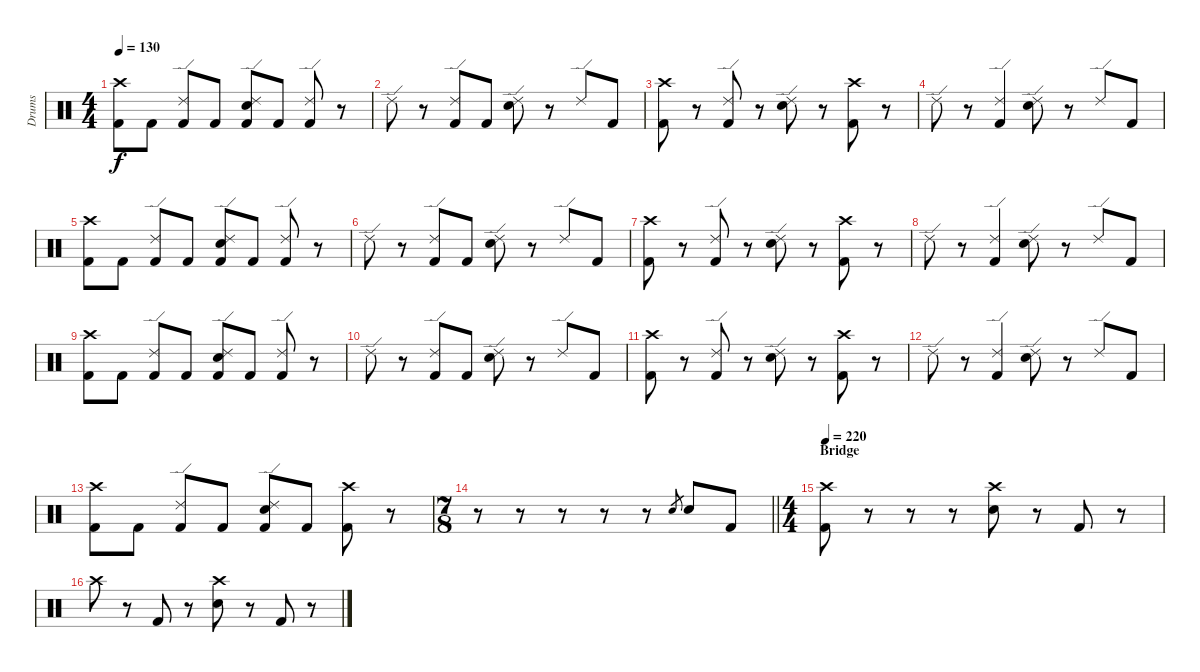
\track ("Drums" "Drums") {instrument percussion}
\staff {score}
\articulation defaults
\ts (4 4)
\tempo 130
\clef neutral
\ks c
("Crash high (hit)" "Kick (hit) 2").8{dy f} "Kick (hit) 2".8 ("Ride (edge) 2" "Kick (hit) 2").8 "Kick (hit) 2".8 ("Ride (edge) 2" "Electric Snare (hit)" "Kick (hit) 2").8 "Kick (hit) 2".8 ("Ride (edge) 2" "Kick (hit) 2").8 r.8 |
"Ride (edge) 2".8 r.8 ("Ride (edge) 2" "Kick (hit) 2").8 "Kick (hit) 2".8 ("Ride (edge) 2" "Electric Snare (hit)").8 r.8 "Ride (edge) 2".8 "Kick (hit) 2".8 |
("Crash high (hit)" "Kick (hit) 2").8 r.8 ("Ride (edge) 2" "Kick (hit) 2").8 r.8 ("Ride (edge) 2" "Electric Snare (hit)").8 r.8 ("Crash high (hit)" "Kick (hit) 2").8 r.8 |
"Ride (edge) 2".8 r.8 ("Ride (edge) 2" "Kick (hit) 2").4 ("Ride (edge) 2" "Electric Snare (hit)").8 r.8 "Ride (edge) 2".8 "Kick (hit) 2".8 |
("Crash high (hit)" "Kick (hit) 2").8 "Kick (hit) 2".8 ("Ride (edge) 2" "Kick (hit) 2").8 "Kick (hit) 2".8 ("Ride (edge) 2" "Electric Snare (hit)" "Kick (hit) 2").8 "Kick (hit) 2".8 ("Ride (edge) 2" "Kick (hit) 2").8 r.8 |
"Ride (edge) 2".8 r.8 ("Ride (edge) 2" "Kick (hit) 2").8 "Kick (hit) 2".8 ("Ride (edge) 2" "Electric Snare (hit)").8 r.8 "Ride (edge) 2".8 "Kick (hit) 2".8 |
("Crash high (hit)" "Kick (hit) 2").8 r.8 ("Ride (edge) 2" "Kick (hit) 2").8 r.8 ("Ride (edge) 2" "Electric Snare (hit)").8 r.8 ("Crash high (hit)" "Kick (hit) 2").8 r.8 |
"Ride (edge) 2".8 r.8 ("Ride (edge) 2" "Kick (hit) 2").4 ("Ride (edge) 2" "Electric Snare (hit)").8 r.8 "Ride (edge) 2".8 "Kick (hit) 2".8 |
("Crash high (hit)" "Kick (hit) 2").8 "Kick (hit) 2".8 ("Ride (edge) 2" "Kick (hit) 2").8 "Kick (hit) 2".8 ("Ride (edge) 2" "Electric Snare (hit)" "Kick (hit) 2").8 "Kick (hit) 2".8 ("Ride (edge) 2" "Kick (hit) 2").8 r.8 |
"Ride (edge) 2".8 r.8 ("Ride (edge) 2" "Kick (hit) 2").8 "Kick (hit) 2".8 ("Ride (edge) 2" "Electric Snare (hit)").8 r.8 "Ride (edge) 2".8 "Kick (hit) 2".8 |
("Crash high (hit)" "Kick (hit) 2").8 r.8 ("Ride (edge) 2" "Kick (hit) 2").8 r.8 ("Ride (edge) 2" "Electric Snare (hit)").8 r.8 ("Crash high (hit)" "Kick (hit) 2").8 r.8 |
"Ride (edge) 2".8 r.8 ("Ride (edge) 2" "Kick (hit) 2").4 ("Ride (edge) 2" "Electric Snare (hit)").8 r.8 "Ride (edge) 2".8 "Kick (hit) 2".8 |
("Crash high (hit)" "Kick (hit) 2").8 "Kick (hit) 2".8 ("Ride (edge) 2" "Kick (hit) 2").8 "Kick (hit) 2".8 ("Ride (edge) 2" "Electric Snare (hit)" "Kick (hit) 2").8 "Kick (hit) 2".8 ("Crash high (hit)" "Kick (hit) 2").8 r.8 |
\ts (7 8)
\barLineRight lightlight
r.8 r.8 r.8 r.8 r.8 "Electric Snare (hit)".8{gr} "Electric Snare (hit)".8 "Kick (hit) 2".8 |
\ts (4 4)
\section ("" "Bridge")
\tempo 220
("Crash high (hit)" "Kick (hit) 2").8 r.8 r.8 r.8 ("Crash high (hit)" "Electric Snare (hit)").8 r.8 "Kick (hit) 2".8 r.8 |
"Crash high (hit)".8 r.8 "Kick (hit) 2".8 r.8 ("Crash high (hit)" "Electric Snare (hit)").8 r.8 "Kick (hit) 2".8 r.8
